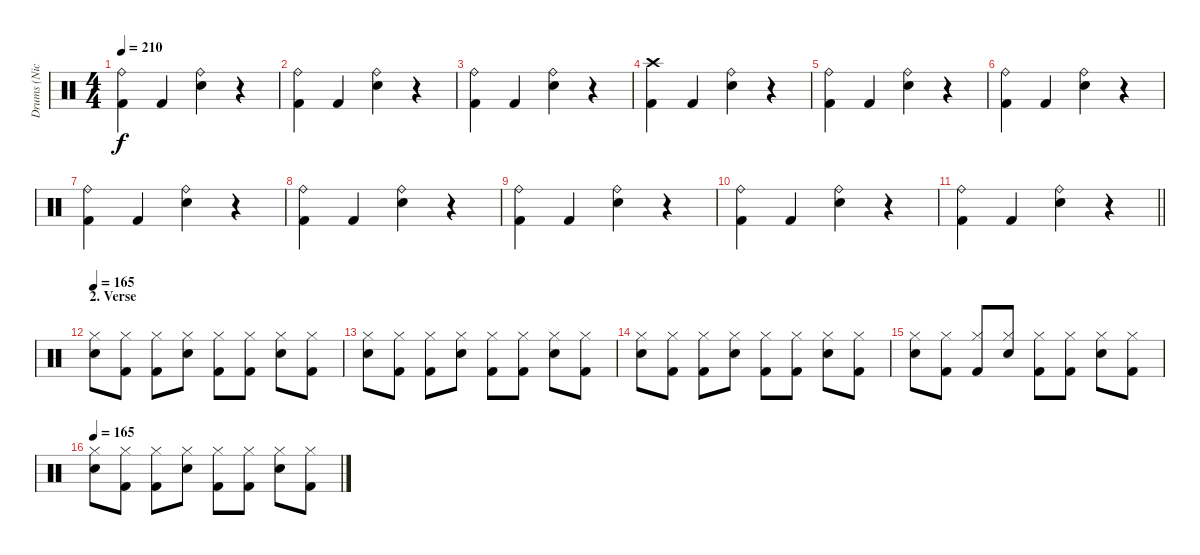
\track ("Drums (Nicko McBrain)" "Drums (Nic") {instrument percussion}
\staff {score}
\articulation defaults
\ts (4 4)
\tempo 210
\clef neutral
\ks c
("Ride (bell)" "Kick (hit) 2").4{dy f} "Kick (hit) 2".4 ("Ride (bell)" "Electric Snare (hit)").4 r.4 |
("Ride (bell)" "Kick (hit) 2").4 "Kick (hit) 2".4 ("Ride (bell)" "Electric Snare (hit)").4 r.4 |
("Ride (bell)" "Kick (hit) 2").4 "Kick (hit) 2".4 ("Ride (bell)" "Electric Snare (hit)").4 r.4 |
("Crash high (hit)" "Kick (hit) 2").4 "Kick (hit) 2".4 ("Ride (bell)" "Electric Snare (hit)").4 r.4 |
("Ride (bell)" "Kick (hit) 2").4 "Kick (hit) 2".4 ("Ride (bell)" "Electric Snare (hit)").4 r.4 |
("Ride (bell)" "Kick (hit) 2").4 "Kick (hit) 2".4 ("Ride (bell)" "Electric Snare (hit)").4 r.4 |
("Ride (bell)" "Kick (hit) 2").4 "Kick (hit) 2".4 ("Ride (bell)" "Electric Snare (hit)").4 r.4 |
("Ride (bell)" "Kick (hit) 2").4 "Kick (hit) 2".4 ("Ride (bell)" "Electric Snare (hit)").4 r.4 |
("Ride (bell)" "Kick (hit) 2").4 "Kick (hit) 2".4 ("Ride (bell)" "Electric Snare (hit)").4 r.4 |
("Ride (bell)" "Kick (hit) 2").4 "Kick (hit) 2".4 ("Ride (bell)" "Electric Snare (hit)").4 r.4 |
\barLineRight lightlight
("Ride (bell)" "Kick (hit) 2").4 "Kick (hit) 2".4 ("Ride (bell)" "Electric Snare (hit)").4 r.4 |
\section ("" "2. Verse")
\tempo 165
("Hi-Hat (closed)" "Electric Snare (hit)").8 ("Hi-Hat (closed)" "Kick (hit) 2").8 ("Hi-Hat (closed)" "Kick (hit) 2").8 ("Hi-Hat (closed)" "Electric Snare (hit)").8 ("Hi-Hat (closed)" "Kick (hit) 2").8 ("Hi-Hat (closed)" "Kick (hit) 2").8 ("Hi-Hat (closed)" "Electric Snare (hit)").8 ("Hi-Hat (closed)" "Kick (hit) 2").8 |
("Hi-Hat (closed)" "Electric Snare (hit)").8 ("Hi-Hat (closed)" "Kick (hit) 2").8 ("Hi-Hat (closed)" "Kick (hit) 2").8 ("Hi-Hat (closed)" "Electric Snare (hit)").8 ("Hi-Hat (closed)" "Kick (hit) 2").8 ("Hi-Hat (closed)" "Kick (hit) 2").8 ("Hi-Hat (closed)" "Electric Snare (hit)").8 ("Hi-Hat (closed)" "Kick (hit) 2").8 |
("Hi-Hat (closed)" "Electric Snare (hit)").8 ("Hi-Hat (closed)" "Kick (hit) 2").8 ("Hi-Hat (closed)" "Kick (hit) 2").8 ("Hi-Hat (closed)" "Electric Snare (hit)").8 ("Hi-Hat (closed)" "Kick (hit) 2").8 ("Hi-Hat (closed)" "Kick (hit) 2").8 ("Hi-Hat (closed)" "Electric Snare (hit)").8 ("Hi-Hat (closed)" "Kick (hit) 2").8 |
("Hi-Hat (closed)" "Electric Snare (hit)").8 ("Hi-Hat (closed)" "Kick (hit) 2").8 ("Hi-Hat (closed)" "Kick (hit) 2").8{beam Up} ("Hi-Hat (closed)" "Electric Snare (hit)").8{beam Up} ("Hi-Hat (closed)" "Kick (hit) 2").8 ("Hi-Hat (closed)" "Kick (hit) 2").8 ("Hi-Hat (closed)" "Electric Snare (hit)").8 ("Hi-Hat (closed)" "Kick (hit) 2").8 |
\tempo 165
("Hi-Hat (closed)" "Electric Snare (hit)").8 ("Hi-Hat (closed)" "Kick (hit) 2").8 ("Hi-Hat (closed)" "Kick (hit) 2").8 ("Hi-Hat (closed)" "Electric Snare (hit)").8 ("Hi-Hat (closed)" "Kick (hit) 2").8 ("Hi-Hat (closed)" "Kick (hit) 2").8 ("Hi-Hat (closed)" "Electric Snare (hit)").8 ("Hi-Hat (closed)" "Kick (hit) 2").8
